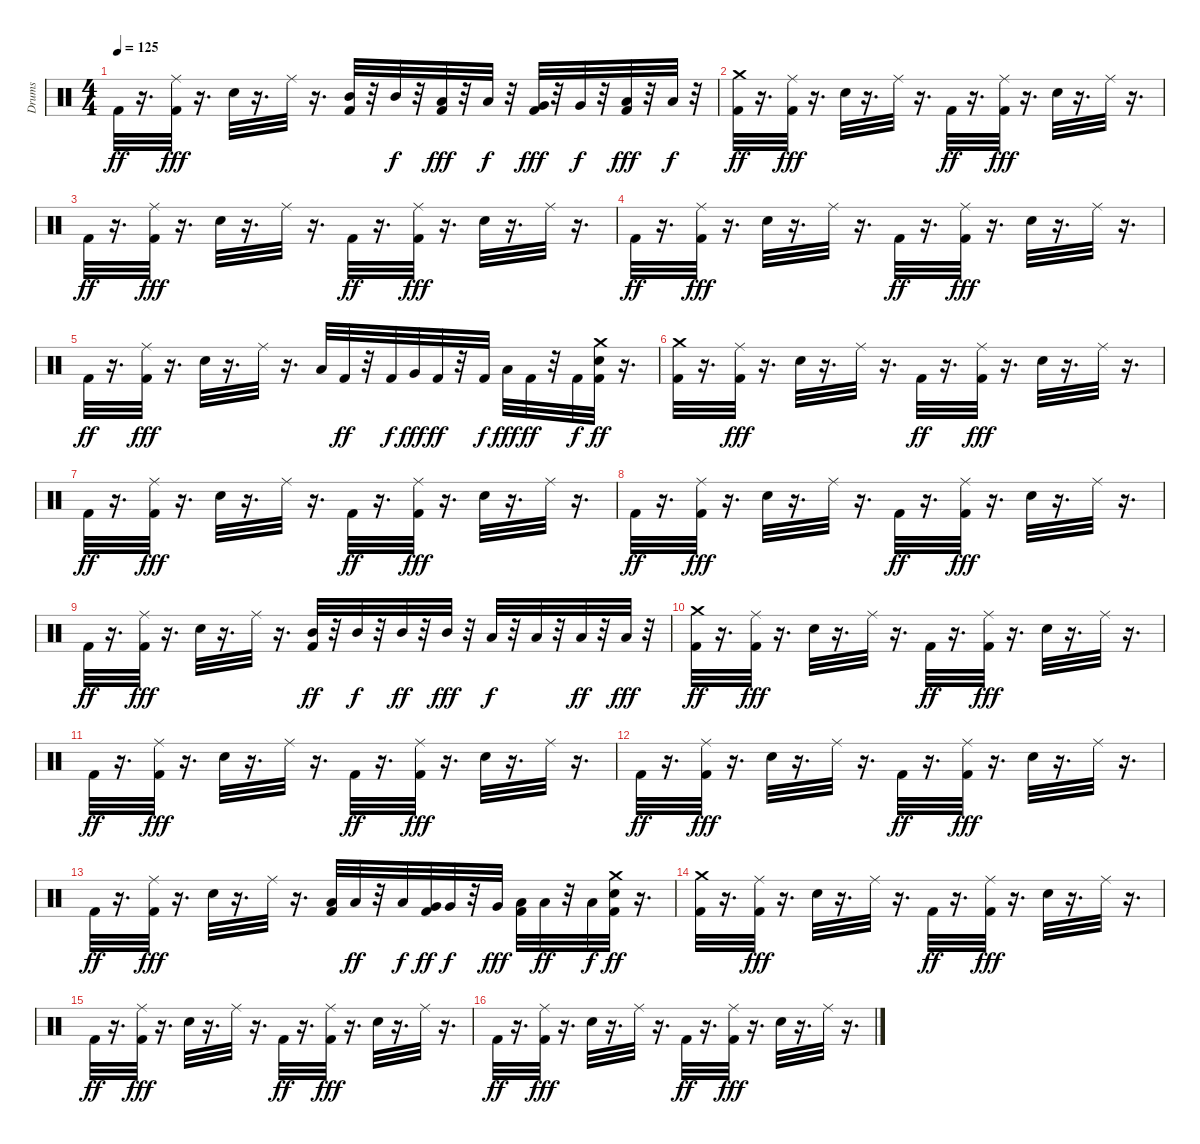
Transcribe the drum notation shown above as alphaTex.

\track ("Drums" "Drums") {instrument percussion}
\staff {score}
\articulation defaults
\ts (4 4)
\tempo 125
\clef neutral
\ks c "Kick (hit) 2".32{dy ff}
r.16{d} ("Ride (middle)" "Kick (hit) 2").32{dy fff} r.16{d} "Snare (hit) 2".32 r.16{d} "Ride (middle)".32 r.16{d} ("Kick (hit) 2" "Mid Tom (hit)").32 r.32 "Mid Tom (hit)".32{dy f} r.32 ("Kick (hit) 2" "Low Tom (hit)").32{dy fff} r.32 "Low Tom (hit)".32{dy f} r.32 ("Kick (hit) 2" "Very Low Tom (hit)").32{dy fff} r.32 "Very Low Tom (hit)".32{dy f} r.32 ("Kick (hit) 2" "Low Floor Tom (hit)").32{dy fff} r.32 "Low Floor Tom (hit)".32{dy f} r.32 |
("Crash medium (hit)" "Kick (hit) 2").32{dy ff} r.16{d} ("Ride (middle)" "Kick (hit) 2").32{dy fff} r.16{d} "Snare (hit) 2".32 r.16{d} "Ride (middle)".32 r.16{d} "Kick (hit) 2".32{dy ff} r.16{d} ("Ride (middle)" "Kick (hit) 2").32{dy fff} r.16{d} "Snare (hit) 2".32 r.16{d} "Ride (middle)".32 r.16{d} |
"Kick (hit) 2".32{dy ff} r.16{d} ("Ride (middle)" "Kick (hit) 2").32{dy fff} r.16{d} "Snare (hit) 2".32 r.16{d} "Ride (middle)".32 r.16{d} "Kick (hit) 2".32{dy ff} r.16{d} ("Ride (middle)" "Kick (hit) 2").32{dy fff} r.16{d} "Snare (hit) 2".32 r.16{d} "Ride (middle)".32 r.16{d} |
"Kick (hit) 2".32{dy ff} r.16{d} ("Ride (middle)" "Kick (hit) 2").32{dy fff} r.16{d} "Snare (hit) 2".32 r.16{d} "Ride (middle)".32 r.16{d} "Kick (hit) 2".32{dy ff} r.16{d} ("Ride (middle)" "Kick (hit) 2").32{dy fff} r.16{d} "Snare (hit) 2".32 r.16{d} "Ride (middle)".32 r.16{d} |
"Kick (hit) 2".32{dy ff} r.16{d} ("Ride (middle)" "Kick (hit) 2").32{dy fff} r.16{d} "Snare (hit) 2".32 r.16{d} "Ride (middle)".32 r.16{d} "Low Tom (hit)".32 "Kick (hit) 2".32{dy ff} r.32 "Kick (hit) 2".32{dy f} "Very Low Tom (hit)".32{dy fff} "Kick (hit) 2".32{dy ff} r.32 "Kick (hit) 2".32{dy f} "Low Floor Tom (hit)".32{dy fff} "Kick (hit) 2".32{dy ff} r.32 "Kick (hit) 2".32{dy f} ("Crash medium (hit)" "Snare (hit) 2" "Kick (hit) 2").32{dy ff} r.16{d} |
("Crash medium (hit)" "Kick (hit) 2").32 r.16{d} ("Ride (middle)" "Kick (hit) 2").32{dy fff} r.16{d} "Snare (hit) 2".32 r.16{d} "Ride (middle)".32 r.16{d} "Kick (hit) 2".32{dy ff} r.16{d} ("Ride (middle)" "Kick (hit) 2").32{dy fff} r.16{d} "Snare (hit) 2".32 r.16{d} "Ride (middle)".32 r.16{d} |
"Kick (hit) 2".32{dy ff} r.16{d} ("Ride (middle)" "Kick (hit) 2").32{dy fff} r.16{d} "Snare (hit) 2".32 r.16{d} "Ride (middle)".32 r.16{d} "Kick (hit) 2".32{dy ff} r.16{d} ("Ride (middle)" "Kick (hit) 2").32{dy fff} r.16{d} "Snare (hit) 2".32 r.16{d} "Ride (middle)".32 r.16{d} |
"Kick (hit) 2".32{dy ff} r.16{d} ("Ride (middle)" "Kick (hit) 2").32{dy fff} r.16{d} "Snare (hit) 2".32 r.16{d} "Ride (middle)".32 r.16{d} "Kick (hit) 2".32{dy ff} r.16{d} ("Ride (middle)" "Kick (hit) 2").32{dy fff} r.16{d} "Snare (hit) 2".32 r.16{d} "Ride (middle)".32 r.16{d} |
"Kick (hit) 2".32{dy ff} r.16{d} ("Ride (middle)" "Kick (hit) 2").32{dy fff} r.16{d} "Snare (hit) 2".32 r.16{d} "Ride (middle)".32 r.16{d} ("Kick (hit) 2" "Mid Tom (hit)").32{dy ff} r.32 "Mid Tom (hit)".32{dy f} r.32 "Mid Tom (hit)".32{dy ff} r.32 "Mid Tom (hit)".32{dy fff} r.32 "Low Floor Tom (hit)".32{dy f} r.32 "Low Floor Tom (hit)".32 r.32 "Low Floor Tom (hit)".32{dy ff} r.32 "Low Floor Tom (hit)".32{dy fff} r.32 |
("Crash medium (hit)" "Kick (hit) 2").32{dy ff} r.16{d} ("Ride (middle)" "Kick (hit) 2").32{dy fff} r.16{d} "Snare (hit) 2".32 r.16{d} "Ride (middle)".32 r.16{d} "Kick (hit) 2".32{dy ff} r.16{d} ("Ride (middle)" "Kick (hit) 2").32{dy fff} r.16{d} "Snare (hit) 2".32 r.16{d} "Ride (middle)".32 r.16{d} |
"Kick (hit) 2".32{dy ff} r.16{d} ("Ride (middle)" "Kick (hit) 2").32{dy fff} r.16{d} "Snare (hit) 2".32 r.16{d} "Ride (middle)".32 r.16{d} "Kick (hit) 2".32{dy ff} r.16{d} ("Ride (middle)" "Kick (hit) 2").32{dy fff} r.16{d} "Snare (hit) 2".32 r.16{d} "Ride (middle)".32 r.16{d} |
"Kick (hit) 2".32{dy ff} r.16{d} ("Ride (middle)" "Kick (hit) 2").32{dy fff} r.16{d} "Snare (hit) 2".32 r.16{d} "Ride (middle)".32 r.16{d} "Kick (hit) 2".32{dy ff} r.16{d} ("Ride (middle)" "Kick (hit) 2").32{dy fff} r.16{d} "Snare (hit) 2".32 r.16{d} "Ride (middle)".32 r.16{d} |
"Kick (hit) 2".32{dy ff} r.16{d} ("Ride (middle)" "Kick (hit) 2").32{dy fff} r.16{d} "Snare (hit) 2".32 r.16{d} "Ride (middle)".32 r.16{d} ("Kick (hit) 2" "Low Tom (hit)").32 "Low Tom (hit)".32{dy ff} r.32 "Low Tom (hit)".32{dy f} ("Kick (hit) 2" "Very Low Tom (hit)").32{dy ff} "Very Low Tom (hit)".32{dy f} r.32 "Very Low Tom (hit)".32{dy fff} ("Kick (hit) 2" "Low Floor Tom (hit)").32 "Low Floor Tom (hit)".32{dy ff} r.32 "Low Floor Tom (hit)".32{dy f} ("Crash medium (hit)" "Snare (hit) 2" "Kick (hit) 2").32{dy ff} r.16{d} |
("Crash medium (hit)" "Kick (hit) 2").32 r.16{d} ("Ride (middle)" "Kick (hit) 2").32{dy fff} r.16{d} "Snare (hit) 2".32 r.16{d} "Ride (middle)".32 r.16{d} "Kick (hit) 2".32{dy ff} r.16{d} ("Ride (middle)" "Kick (hit) 2").32{dy fff} r.16{d} "Snare (hit) 2".32 r.16{d} "Ride (middle)".32 r.16{d} |
"Kick (hit) 2".32{dy ff} r.16{d} ("Ride (middle)" "Kick (hit) 2").32{dy fff} r.16{d} "Snare (hit) 2".32 r.16{d} "Ride (middle)".32 r.16{d} "Kick (hit) 2".32{dy ff} r.16{d} ("Ride (middle)" "Kick (hit) 2").32{dy fff} r.16{d} "Snare (hit) 2".32 r.16{d} "Ride (middle)".32 r.16{d} |
"Kick (hit) 2".32{dy ff} r.16{d} ("Ride (middle)" "Kick (hit) 2").32{dy fff} r.16{d} "Snare (hit) 2".32 r.16{d} "Ride (middle)".32 r.16{d} "Kick (hit) 2".32{dy ff} r.16{d} ("Ride (middle)" "Kick (hit) 2").32{dy fff} r.16{d} "Snare (hit) 2".32 r.16{d} "Ride (middle)".32 r.16{d}
